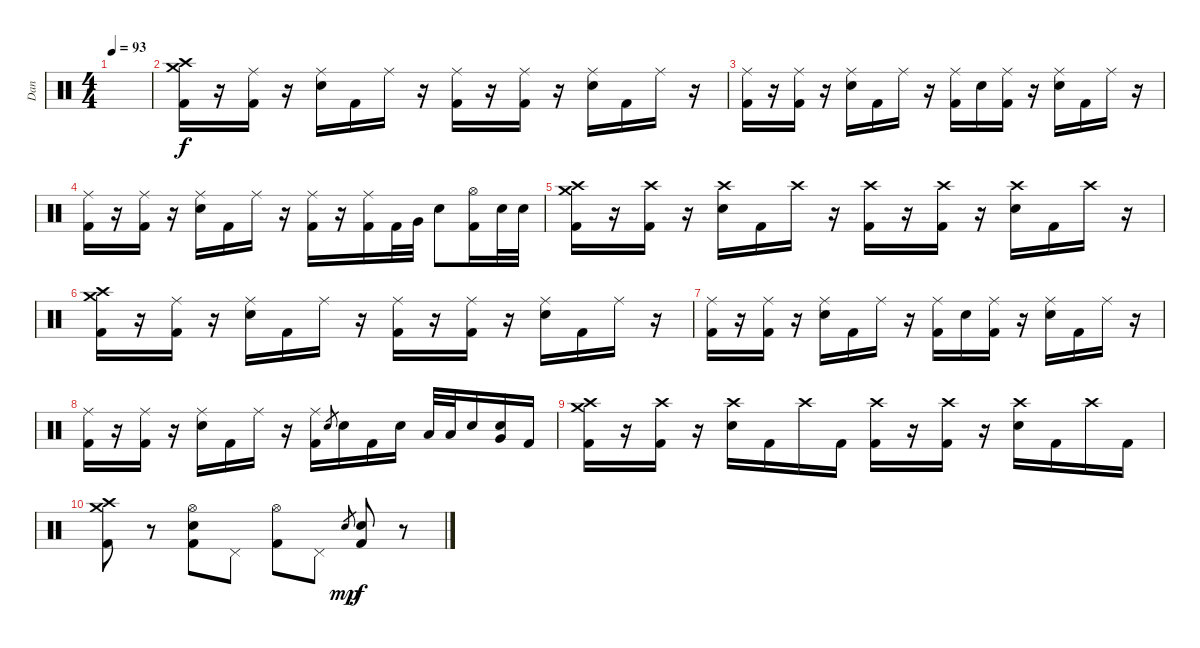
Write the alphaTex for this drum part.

\track ("Dan" "Dan") {instrument percussion}
\staff {score}
\articulation defaults
\ts (4 4)
\tempo 93
\clef neutral
\ks c
|
("Crash high (hit)" "Crash medium (hit)" "Kick (hit) 2").16 r.16 ("Ride (middle)" "Kick (hit) 2").16 r.16 ("Ride (middle)" "Electric Snare (hit)").16 "Kick (hit) 2".16 "Ride (middle)".16 r.16 ("Ride (middle)" "Kick (hit) 2").16 r.16 ("Ride (middle)" "Kick (hit) 2").16 r.16 ("Ride (middle)" "Electric Snare (hit)").16 "Kick (hit) 2".16 "Ride (middle)".16 r.16 |
("Ride (middle)" "Kick (hit) 2").16 r.16 ("Ride (middle)" "Kick (hit) 2").16 r.16 ("Ride (middle)" "Electric Snare (hit)").16 "Kick (hit) 2".16 "Ride (middle)".16 r.16 ("Ride (middle)" "Kick (hit) 2").16 "Electric Snare (hit)".16 ("Ride (middle)" "Kick (hit) 2").16 r.16 ("Ride (middle)" "Electric Snare (hit)").16 "Kick (hit) 2".16 "Ride (middle)".16 r.16 |
("Ride (middle)" "Kick (hit) 2").16 r.16 ("Ride (middle)" "Kick (hit) 2").16 r.16 ("Ride (middle)" "Electric Snare (hit)").16 "Kick (hit) 2".16 "Ride (middle)".16 r.16 ("Ride (middle)" "Kick (hit) 2").16 r.16 ("Ride (middle)" "Kick (hit) 2").16 "Kick (hit) 2".32 "Very Low Tom (hit)".32 "Electric Snare (hit)".8 ("Hi-Hat (open)" "Kick (hit) 2").16 "Electric Snare (hit)".32 "Electric Snare (hit)".32 |
("Crash high (hit)" "Crash medium (hit)" "Kick (hit) 2").16 r.16 ("Crash high (hit)" "Kick (hit) 2").16 r.16 ("Crash high (hit)" "Electric Snare (hit)").16 "Kick (hit) 2".16 "Crash high (hit)".16 r.16 ("Crash high (hit)" "Kick (hit) 2").16 r.16 ("Crash high (hit)" "Kick (hit) 2").16 r.16 ("Crash high (hit)" "Electric Snare (hit)").16 "Kick (hit) 2".16 "Crash high (hit)".16 r.16 |
("Crash high (hit)" "Crash medium (hit)" "Kick (hit) 2").16 r.16 ("Ride (middle)" "Kick (hit) 2").16 r.16 ("Ride (middle)" "Electric Snare (hit)").16 "Kick (hit) 2".16 "Ride (middle)".16 r.16 ("Ride (middle)" "Kick (hit) 2").16 r.16 ("Ride (middle)" "Kick (hit) 2").16 r.16 ("Ride (middle)" "Electric Snare (hit)").16 "Kick (hit) 2".16 "Ride (middle)".16 r.16 |
("Ride (middle)" "Kick (hit) 2").16 r.16 ("Ride (middle)" "Kick (hit) 2").16 r.16 ("Ride (middle)" "Electric Snare (hit)").16 "Kick (hit) 2".16 "Ride (middle)".16 r.16 ("Ride (middle)" "Kick (hit) 2").16 "Electric Snare (hit)".16 ("Ride (middle)" "Kick (hit) 2").16 r.16 ("Ride (middle)" "Electric Snare (hit)").16 "Kick (hit) 2".16 "Ride (middle)".16 r.16 |
("Ride (middle)" "Kick (hit) 2").16 r.16 ("Ride (middle)" "Kick (hit) 2").16 r.16 ("Ride (middle)" "Electric Snare (hit)").16 "Kick (hit) 2".16 "Ride (middle)".16 r.16 ("Ride (middle)" "Kick (hit) 2").16 "Electric Snare (hit)".8{gr} "Electric Snare (hit)".16 "Kick (hit) 2".16 "Electric Snare (hit)".16 "Low Tom (hit)".32 "Low Tom (hit)".32 "Electric Snare (hit)".16 ("Electric Snare (hit)" "Very Low Tom (hit)").16 "Kick (hit) 2".16 |
("Crash high (hit)" "Crash medium (hit)" "Kick (hit) 2").16 r.16 ("Crash high (hit)" "Kick (hit) 2").16 r.16 ("Crash high (hit)" "Electric Snare (hit)").16 "Kick (hit) 2".16 "Crash high (hit)".16 "Kick (hit) 2".16 ("Crash high (hit)" "Kick (hit) 2").16 r.16 ("Crash high (hit)" "Kick (hit) 2").16 r.16 ("Crash high (hit)" "Electric Snare (hit)").16 "Kick (hit) 2".16 "Crash high (hit)".16 "Kick (hit) 2".16 |
("Crash high (hit)" "Crash medium (hit)" "Kick (hit) 2").8 r.8 ("Hi-Hat (open)" "Electric Snare (hit)" "Kick (hit) 2").8 "Pedal Hi-Hat (hit)".8 ("Hi-Hat (open)" "Kick (hit) 2").8 "Pedal Hi-Hat (hit)".8 "Electric Snare (hit)".8{gr dy mp} ("Electric Snare (hit)" "Kick (hit) 2").8{dy f} r.8
